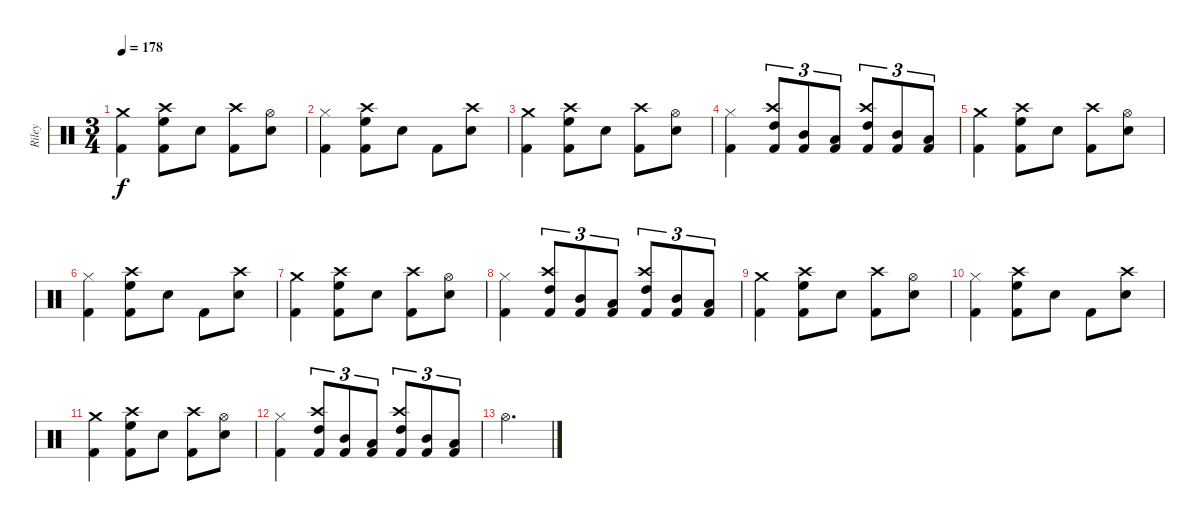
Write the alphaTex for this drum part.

\track ("Riley" "Riley") {instrument percussion}
\staff {score}
\articulation defaults
\ts (3 4)
\tempo 178
\clef neutral
\ks c
("Crash medium (hit)" "Kick (hit) 2").4{dy f} ("Crash high (hit)" "High Floor Tom (hit)" "Kick (hit) 2").8 "Snare (hit) 2".8 ("Crash high (hit)" "Kick (hit) 2").8 ("Hi-Hat (open)" "Snare (hit) 2").8 |
("Hi-Hat (closed)" "Kick (hit) 2").4 ("Crash high (hit)" "High Floor Tom (hit)" "Kick (hit) 2").8 "Snare (hit) 2".8 "Kick (hit) 2".8 ("Crash high (hit)" "Snare (hit) 2").8 |
("Crash medium (hit)" "Kick (hit) 2").4 ("Crash high (hit)" "High Floor Tom (hit)" "Kick (hit) 2").8 "Snare (hit) 2".8 ("Crash high (hit)" "Kick (hit) 2").8 ("Hi-Hat (open)" "Snare (hit) 2").8 |
("Hi-Hat (closed)" "Kick (hit) 2").4 ("Crash high (hit)" "High Tom (hit)" "Kick (hit) 2").8{tu (3 2)} ("Mid Tom (hit)" "Kick (hit) 2").8{tu (3 2)} ("Low Tom (hit)" "Kick (hit) 2").8{tu (3 2)} ("Crash high (hit)" "High Tom (hit)" "Kick (hit) 2").8{tu (3 2)} ("Mid Tom (hit)" "Kick (hit) 2").8{tu (3 2)} ("Low Tom (hit)" "Kick (hit) 2").8{tu (3 2)} |
("Crash medium (hit)" "Kick (hit) 2").4 ("Crash high (hit)" "High Floor Tom (hit)" "Kick (hit) 2").8 "Snare (hit) 2".8 ("Crash high (hit)" "Kick (hit) 2").8 ("Hi-Hat (open)" "Snare (hit) 2").8 |
("Hi-Hat (closed)" "Kick (hit) 2").4 ("Crash high (hit)" "High Floor Tom (hit)" "Kick (hit) 2").8 "Snare (hit) 2".8 "Kick (hit) 2".8 ("Crash high (hit)" "Snare (hit) 2").8 |
("Crash medium (hit)" "Kick (hit) 2").4 ("Crash high (hit)" "High Floor Tom (hit)" "Kick (hit) 2").8 "Snare (hit) 2".8 ("Crash high (hit)" "Kick (hit) 2").8 ("Hi-Hat (open)" "Snare (hit) 2").8 |
("Hi-Hat (closed)" "Kick (hit) 2").4 ("Crash high (hit)" "High Tom (hit)" "Kick (hit) 2").8{tu (3 2)} ("Mid Tom (hit)" "Kick (hit) 2").8{tu (3 2)} ("Low Tom (hit)" "Kick (hit) 2").8{tu (3 2)} ("Crash high (hit)" "High Tom (hit)" "Kick (hit) 2").8{tu (3 2)} ("Mid Tom (hit)" "Kick (hit) 2").8{tu (3 2)} ("Low Tom (hit)" "Kick (hit) 2").8{tu (3 2)} |
("Crash medium (hit)" "Kick (hit) 2").4 ("Crash high (hit)" "High Floor Tom (hit)" "Kick (hit) 2").8 "Snare (hit) 2".8 ("Crash high (hit)" "Kick (hit) 2").8 ("Hi-Hat (open)" "Snare (hit) 2").8 |
("Hi-Hat (closed)" "Kick (hit) 2").4 ("Crash high (hit)" "High Floor Tom (hit)" "Kick (hit) 2").8 "Snare (hit) 2".8 "Kick (hit) 2".8 ("Crash high (hit)" "Snare (hit) 2").8 |
("Crash medium (hit)" "Kick (hit) 2").4 ("Crash high (hit)" "High Floor Tom (hit)" "Kick (hit) 2").8 "Snare (hit) 2".8 ("Crash high (hit)" "Kick (hit) 2").8 ("Hi-Hat (open)" "Snare (hit) 2").8 |
("Hi-Hat (closed)" "Kick (hit) 2").4 ("Crash high (hit)" "High Tom (hit)" "Kick (hit) 2").8{tu (3 2)} ("Mid Tom (hit)" "Kick (hit) 2").8{tu (3 2)} ("Low Tom (hit)" "Kick (hit) 2").8{tu (3 2)} ("Crash high (hit)" "High Tom (hit)" "Kick (hit) 2").8{tu (3 2)} ("Mid Tom (hit)" "Kick (hit) 2").8{tu (3 2)} ("Low Tom (hit)" "Kick (hit) 2").8{tu (3 2)} |
"Hi-Hat (open)".2{d}
